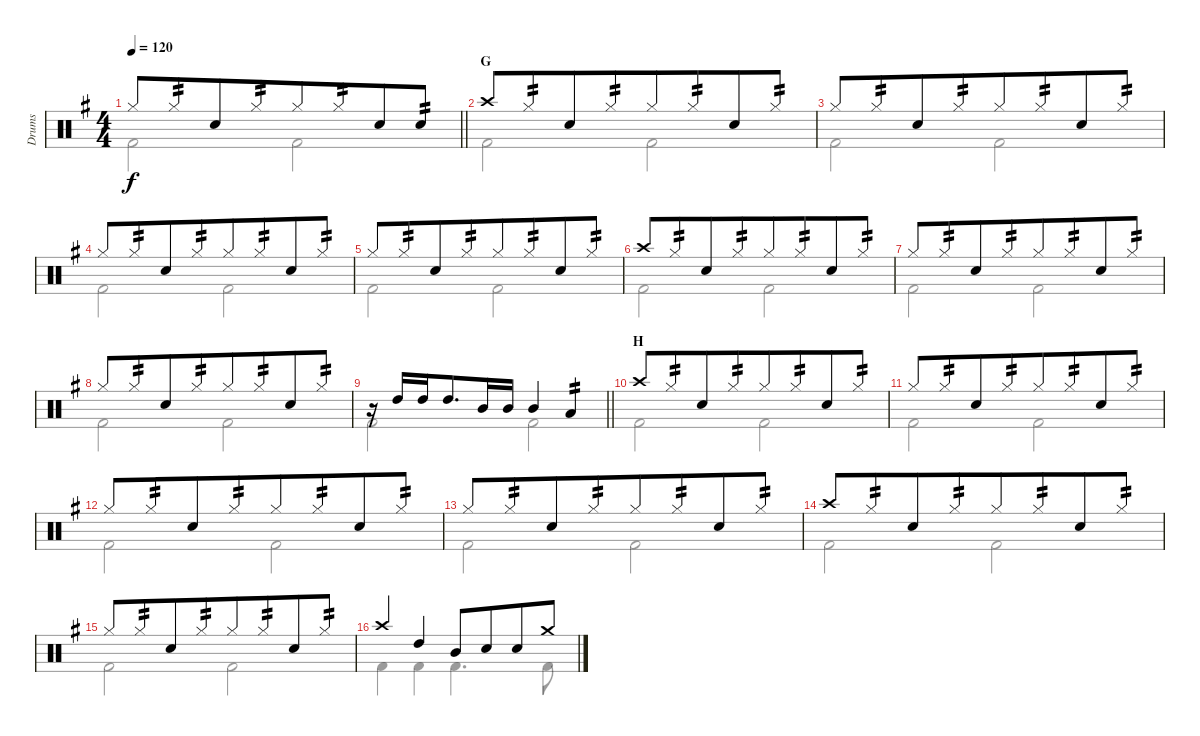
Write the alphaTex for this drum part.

\track ("Drums" "Drums") {instrument percussion}
\staff {score}
\articulation defaults
\voice
\ts (4 4)
\tempo 120
\clef neutral
\barLineRight lightlight
\ks g "Hi-Hat (closed)".8{dy f} "Hi-Hat (closed)".8{tp 2 beam merge} "Snare (hit) 2".8 "Hi-Hat (closed)".8{tp 2 beam merge} "Hi-Hat (closed)".8 "Hi-Hat (closed)".8{tp 2 beam merge} "Snare (hit) 2".8 "Electric Snare (hit)".8{tp 2}
|
\section ("" "G")
"Crash high (hit)".8 "Hi-Hat (closed)".8{tp 2 beam merge} "Snare (hit) 2".8 "Hi-Hat (closed)".8{tp 2 beam merge} "Hi-Hat (closed)".8 "Hi-Hat (closed)".8{tp 2 beam merge} "Snare (hit) 2".8 "Hi-Hat (closed)".8{tp 2} |
"Hi-Hat (closed)".8 "Hi-Hat (closed)".8{tp 2 beam merge} "Snare (hit) 2".8 "Hi-Hat (closed)".8{tp 2 beam merge} "Hi-Hat (closed)".8 "Hi-Hat (closed)".8{tp 2 beam merge} "Snare (hit) 2".8 "Hi-Hat (closed)".8{tp 2} |
"Hi-Hat (closed)".8 "Hi-Hat (closed)".8{tp 2 beam merge} "Snare (hit) 2".8 "Hi-Hat (closed)".8{tp 2 beam merge} "Hi-Hat (closed)".8 "Hi-Hat (closed)".8{tp 2 beam merge} "Snare (hit) 2".8 "Hi-Hat (closed)".8{tp 2} |
"Hi-Hat (closed)".8 "Hi-Hat (closed)".8{tp 2 beam merge} "Snare (hit) 2".8 "Hi-Hat (closed)".8{tp 2 beam merge} "Hi-Hat (closed)".8 "Hi-Hat (closed)".8{tp 2 beam merge} "Snare (hit) 2".8 "Hi-Hat (closed)".8{tp 2} |
"Crash high (hit)".8 "Hi-Hat (closed)".8{tp 2 beam merge} "Snare (hit) 2".8 "Hi-Hat (closed)".8{tp 2 beam merge} "Hi-Hat (closed)".8 "Hi-Hat (closed)".8{tp 2 beam merge} "Snare (hit) 2".8 "Hi-Hat (closed)".8{tp 2} |
"Hi-Hat (closed)".8 "Hi-Hat (closed)".8{tp 2 beam merge} "Snare (hit) 2".8 "Hi-Hat (closed)".8{tp 2 beam merge} "Hi-Hat (closed)".8 "Hi-Hat (closed)".8{tp 2 beam merge} "Snare (hit) 2".8 "Hi-Hat (closed)".8{tp 2} |
"Hi-Hat (closed)".8 "Hi-Hat (closed)".8{tp 2 beam merge} "Snare (hit) 2".8 "Hi-Hat (closed)".8{tp 2 beam merge} "Hi-Hat (closed)".8 "Hi-Hat (closed)".8{tp 2 beam merge} "Snare (hit) 2".8 "Hi-Hat (closed)".8{tp 2} |
\barLineRight lightlight
r.16 "High Tom (hit)".16{beam merge} "High Tom (hit)".16 "High Tom (hit)".8{d beam merge} "Mid Tom (hit)".16 "Mid Tom (hit)".16{beam merge} "Mid Tom (hit)".4 "Low Tom (hit)".4{tp 2} |
\section ("" "H")
"Crash high (hit)".8 "Hi-Hat (closed)".8{tp 2 beam merge} "Snare (hit) 2".8 "Hi-Hat (closed)".8{tp 2 beam merge} "Hi-Hat (closed)".8 "Hi-Hat (closed)".8{tp 2 beam merge} "Snare (hit) 2".8 "Hi-Hat (closed)".8{tp 2} |
"Hi-Hat (closed)".8 "Hi-Hat (closed)".8{tp 2 beam merge} "Snare (hit) 2".8 "Hi-Hat (closed)".8{tp 2 beam merge} "Hi-Hat (closed)".8 "Hi-Hat (closed)".8{tp 2 beam merge} "Snare (hit) 2".8 "Hi-Hat (closed)".8{tp 2} |
"Hi-Hat (closed)".8 "Hi-Hat (closed)".8{tp 2 beam merge} "Snare (hit) 2".8 "Hi-Hat (closed)".8{tp 2 beam merge} "Hi-Hat (closed)".8 "Hi-Hat (closed)".8{tp 2 beam merge} "Snare (hit) 2".8 "Hi-Hat (closed)".8{tp 2} |
"Hi-Hat (closed)".8 "Hi-Hat (closed)".8{tp 2 beam merge} "Snare (hit) 2".8 "Hi-Hat (closed)".8{tp 2 beam merge} "Hi-Hat (closed)".8 "Hi-Hat (closed)".8{tp 2 beam merge} "Snare (hit) 2".8 "Hi-Hat (closed)".8{tp 2} |
"Crash high (hit)".8 "Hi-Hat (closed)".8{tp 2 beam merge} "Snare (hit) 2".8 "Hi-Hat (closed)".8{tp 2 beam merge} "Hi-Hat (closed)".8 "Hi-Hat (closed)".8{tp 2 beam merge} "Snare (hit) 2".8 "Hi-Hat (closed)".8{tp 2} |
"Hi-Hat (closed)".8 "Hi-Hat (closed)".8{tp 2 beam merge} "Snare (hit) 2".8 "Hi-Hat (closed)".8{tp 2 beam merge} "Hi-Hat (closed)".8 "Hi-Hat (closed)".8{tp 2 beam merge} "Snare (hit) 2".8 "Hi-Hat (closed)".8{tp 2} |
"Crash high (hit)".4 "High Tom (hit)".4 "Mid Tom (hit)".8{beam merge} "Electric Snare (hit)".8{beam merge} "Snare (hit) 2".8{beam merge} "Crash medium (hit)".8
\voice
\clef neutral
\ottava regular
\simile none
\barLineRight lightlight
\ks g "Kick (hit) 2".2{dy f} "Kick (hit) 2".2
|
"Kick (hit) 2".2 "Kick (hit) 2".2 |
"Kick (hit) 2".2 "Kick (hit) 2".2 |
"Kick (hit) 2".2 "Kick (hit) 2".2 |
"Kick (hit) 2".2 "Kick (hit) 2".2 |
"Kick (hit) 2".2 "Kick (hit) 2".2 |
"Kick (hit) 2".2 "Kick (hit) 2".2 |
"Kick (hit) 2".2 "Kick (hit) 2".2 |
\barLineRight lightlight "Kick (hit) 2".2 "Kick (hit) 2".2
|
"Kick (hit) 2".2 "Kick (hit) 2".2 |
"Kick (hit) 2".2 "Kick (hit) 2".2 |
"Kick (hit) 2".2 "Kick (hit) 2".2 |
"Kick (hit) 2".2 "Kick (hit) 2".2 |
"Kick (hit) 2".2 "Kick (hit) 2".2 |
"Kick (hit) 2".2 "Kick (hit) 2".2 |
"Kick (hit) 2".4 "Kick (hit) 2".4 "Kick (hit) 2".4{d} "Kick (hit) 2".8
